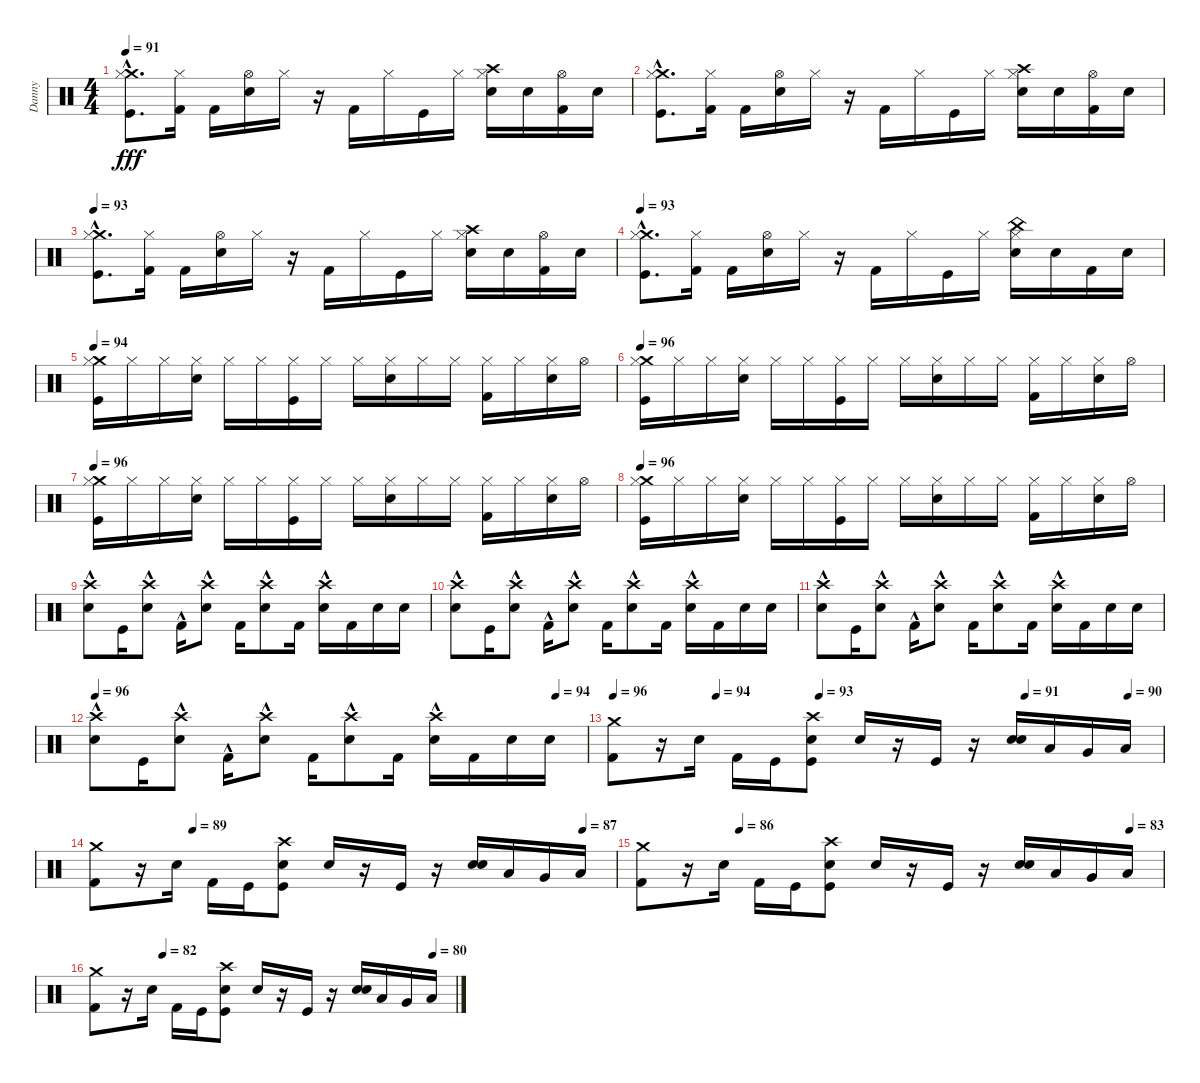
\track ("Danny" "Danny") {instrument percussion}
\staff {score}
\articulation defaults
\ts (4 4)
\tempo 91
\clef neutral
\ks c
("Crash medium (hit)" "Kick (hit)" "Hi-Hat (closed)"{hac}).8{d dy fff} ("Kick (hit) 2" "Hi-Hat (closed)").16 "Kick (hit) 2".16 ("Snare (hit) 2" "Hi-Hat (open)").16 "Hi-Hat (closed)".16 r.16 "Kick (hit) 2".16 "Hi-Hat (closed)".16 "Kick (hit)".16 "Hi-Hat (closed)".16 ("Crash high (hit)" "Snare (hit) 2" "Hi-Hat (closed)").16 "Snare (hit) 2".16 ("Kick (hit) 2" "Hi-Hat (open)").16 "Snare (hit) 2".16 |
("Crash medium (hit)" "Kick (hit)" "Hi-Hat (closed)"{hac}).8{d} ("Kick (hit) 2" "Hi-Hat (closed)").16 "Kick (hit) 2".16 ("Snare (hit) 2" "Hi-Hat (open)").16 "Hi-Hat (closed)".16 r.16 "Kick (hit) 2".16 "Hi-Hat (closed)".16 "Kick (hit)".16 "Hi-Hat (closed)".16 ("Crash high (hit)" "Snare (hit) 2" "Hi-Hat (closed)").16 "Snare (hit) 2".16 ("Kick (hit) 2" "Hi-Hat (open)").16 "Snare (hit) 2".16 |
\tempo 93
("Crash medium (hit)" "Kick (hit)" "Hi-Hat (closed)"{hac}).8{d} ("Kick (hit) 2" "Hi-Hat (closed)").16 "Kick (hit) 2".16 ("Snare (hit) 2" "Hi-Hat (open)").16 "Hi-Hat (closed)".16 r.16 "Kick (hit) 2".16 "Hi-Hat (closed)".16 "Kick (hit)".16 "Hi-Hat (closed)".16 ("Crash high (hit)" "Snare (hit) 2" "Hi-Hat (closed)").16 "Snare (hit) 2".16 ("Kick (hit) 2" "Hi-Hat (open)").16 "Snare (hit) 2".16 |
\tempo 93
("Crash medium (hit)" "Hi-Hat (closed)"{hac} "Kick (hit)").8{d} ("Kick (hit) 2" "Hi-Hat (closed)").16 "Kick (hit) 2".16 ("Hi-Hat (open)" "Snare (hit) 2").16 "Hi-Hat (closed)".16 r.16 "Kick (hit) 2".16 "Hi-Hat (closed)".16 "Kick (hit)".16 "Hi-Hat (closed)".16 ("China (hit)" "Hi-Hat (closed)" "Snare (hit) 2").16 "Snare (hit) 2".16 "Kick (hit) 2".16 "Snare (hit) 2".16 |
\tempo 94
("Crash medium (hit)" "Hi-Hat (closed)" "Kick (hit)").16 "Hi-Hat (closed)".16 "Hi-Hat (closed)".16 ("Hi-Hat (closed)" "Snare (hit) 2").16 "Hi-Hat (closed)".16 "Hi-Hat (closed)".16 ("Hi-Hat (closed)" "Kick (hit)").16 "Hi-Hat (closed)".16 "Hi-Hat (closed)".16 ("Snare (hit) 2" "Hi-Hat (closed)").16 "Hi-Hat (closed)".16 "Hi-Hat (closed)".16 ("Kick (hit) 2" "Hi-Hat (closed)").16 "Hi-Hat (closed)".16 ("Snare (hit) 2" "Hi-Hat (closed)").16 "Hi-Hat (open)".16 |
\tempo 96
("Crash medium (hit)" "Hi-Hat (closed)" "Kick (hit)").16 "Hi-Hat (closed)".16 "Hi-Hat (closed)".16 ("Hi-Hat (closed)" "Snare (hit) 2").16 "Hi-Hat (closed)".16 "Hi-Hat (closed)".16 ("Hi-Hat (closed)" "Kick (hit)").16 "Hi-Hat (closed)".16 "Hi-Hat (closed)".16 ("Snare (hit) 2" "Hi-Hat (closed)").16 "Hi-Hat (closed)".16 "Hi-Hat (closed)".16 ("Kick (hit) 2" "Hi-Hat (closed)").16 "Hi-Hat (closed)".16 ("Snare (hit) 2" "Hi-Hat (closed)").16 "Hi-Hat (open)".16 |
\tempo 96
("Crash medium (hit)" "Hi-Hat (closed)" "Kick (hit)").16 "Hi-Hat (closed)".16 "Hi-Hat (closed)".16 ("Hi-Hat (closed)" "Snare (hit) 2").16 "Hi-Hat (closed)".16 "Hi-Hat (closed)".16 ("Hi-Hat (closed)" "Kick (hit)").16 "Hi-Hat (closed)".16 "Hi-Hat (closed)".16 ("Snare (hit) 2" "Hi-Hat (closed)").16 "Hi-Hat (closed)".16 "Hi-Hat (closed)".16 ("Kick (hit) 2" "Hi-Hat (closed)").16 "Hi-Hat (closed)".16 ("Snare (hit) 2" "Hi-Hat (closed)").16 "Hi-Hat (open)".16 |
\tempo 96
("Crash medium (hit)" "Hi-Hat (closed)" "Kick (hit)").16 "Hi-Hat (closed)".16 "Hi-Hat (closed)".16 ("Hi-Hat (closed)" "Snare (hit) 2").16 "Hi-Hat (closed)".16 "Hi-Hat (closed)".16 ("Hi-Hat (closed)" "Kick (hit)").16 "Hi-Hat (closed)".16 "Hi-Hat (closed)".16 ("Snare (hit) 2" "Hi-Hat (closed)").16 "Hi-Hat (closed)".16 "Hi-Hat (closed)".16 ("Kick (hit) 2" "Hi-Hat (closed)").16 "Hi-Hat (closed)".16 ("Snare (hit) 2" "Hi-Hat (closed)").16 "Hi-Hat (open)".16 |
("Crash high (hit)"{hac} "Snare (hit) 2").8 "Kick (hit)".16 ("Crash high (hit)"{hac} "Snare (hit) 2").8 "Kick (hit) 2"{hac}.16 ("Snare (hit) 2" "Crash high (hit)"{hac}).8 "Kick (hit) 2".16 ("Snare (hit) 2" "Crash high (hit)"{hac}).8 "Kick (hit) 2".16 ("Crash high (hit)"{hac} "Snare (hit) 2").16 "Kick (hit) 2".16 "Snare (hit) 2".16 "Snare (hit) 2".16 |
("Crash high (hit)"{hac} "Snare (hit) 2").8 "Kick (hit)".16 ("Crash high (hit)"{hac} "Snare (hit) 2").8 "Kick (hit) 2"{hac}.16 ("Snare (hit) 2" "Crash high (hit)"{hac}).8 "Kick (hit) 2".16 ("Snare (hit) 2" "Crash high (hit)"{hac}).8 "Kick (hit) 2".16 ("Crash high (hit)"{hac} "Snare (hit) 2").16 "Kick (hit) 2".16 "Snare (hit) 2".16 "Snare (hit) 2".16 |
("Crash high (hit)"{hac} "Snare (hit) 2").8 "Kick (hit)".16 ("Crash high (hit)"{hac} "Snare (hit) 2").8 "Kick (hit) 2"{hac}.16 ("Snare (hit) 2" "Crash high (hit)"{hac}).8 "Kick (hit) 2".16 ("Snare (hit) 2" "Crash high (hit)"{hac}).8 "Kick (hit) 2".16 ("Crash high (hit)"{hac} "Snare (hit) 2").16 "Kick (hit) 2".16 "Snare (hit) 2".16 "Snare (hit) 2".16 |
\tempo 96
\tempo (94 0.9375)
("Crash high (hit)"{hac} "Snare (hit) 2").8 "Kick (hit)".16 ("Crash high (hit)"{hac} "Snare (hit) 2").8 "Kick (hit) 2"{hac}.16 ("Snare (hit) 2" "Crash high (hit)"{hac}).8 "Kick (hit) 2".16 ("Snare (hit) 2" "Crash high (hit)"{hac}).8 "Kick (hit) 2".16 ("Crash high (hit)"{hac} "Snare (hit) 2").16 "Kick (hit) 2".16 "Snare (hit) 2".16 "Snare (hit) 2".16 |
\tempo 96
\tempo (94 0.1875)
\tempo (93 0.375)
\tempo (91 0.75)
\tempo (90 0.9375)
("Crash medium (hit)" "Kick (hit) 2").8 r.16 "Snare (hit) 2".16 "Kick (hit) 2".16 "Kick (hit)".16 ("Kick (hit)" "Snare (hit) 2" "Crash high (hit)").8 "Snare (hit) 2".16 r.16 "Kick (hit)".16 r.16 ("Snare (hit) 2" "Snare (hit) 2").16 "Low Tom (hit)".16 "Very Low Tom (hit)".16 "Low Floor Tom (hit)".16 |
\tempo (89 0.1875)
\tempo (87 0.9375)
("Crash medium (hit)" "Kick (hit) 2").8 r.16 "Snare (hit) 2".16 "Kick (hit) 2".16 "Kick (hit)".16 ("Kick (hit)" "Snare (hit) 2" "Crash high (hit)").8 "Snare (hit) 2".16 r.16 "Kick (hit)".16 r.16 ("Snare (hit) 2" "Snare (hit) 2").16 "Low Tom (hit)".16 "Very Low Tom (hit)".16 "Low Floor Tom (hit)".16 |
\tempo (86 0.1875)
\tempo (83 0.9375)
("Crash medium (hit)" "Kick (hit) 2").8 r.16 "Snare (hit) 2".16 "Kick (hit) 2".16 "Kick (hit)".16 ("Kick (hit)" "Snare (hit) 2" "Crash high (hit)").8 "Snare (hit) 2".16 r.16 "Kick (hit)".16 r.16 ("Snare (hit) 2" "Snare (hit) 2").16 "Low Tom (hit)".16 "Very Low Tom (hit)".16 "Low Floor Tom (hit)".16 |
\tempo (82 0.1875)
\tempo (80 0.9375)
("Crash medium (hit)" "Kick (hit) 2").8 r.16 "Snare (hit) 2".16 "Kick (hit) 2".16 "Kick (hit)".16 ("Kick (hit)" "Snare (hit) 2" "Crash high (hit)").8 "Snare (hit) 2".16 r.16 "Kick (hit)".16 r.16 ("Snare (hit) 2" "Snare (hit) 2").16 "Low Tom (hit)".16 "Very Low Tom (hit)".16 "Low Floor Tom (hit)".16
